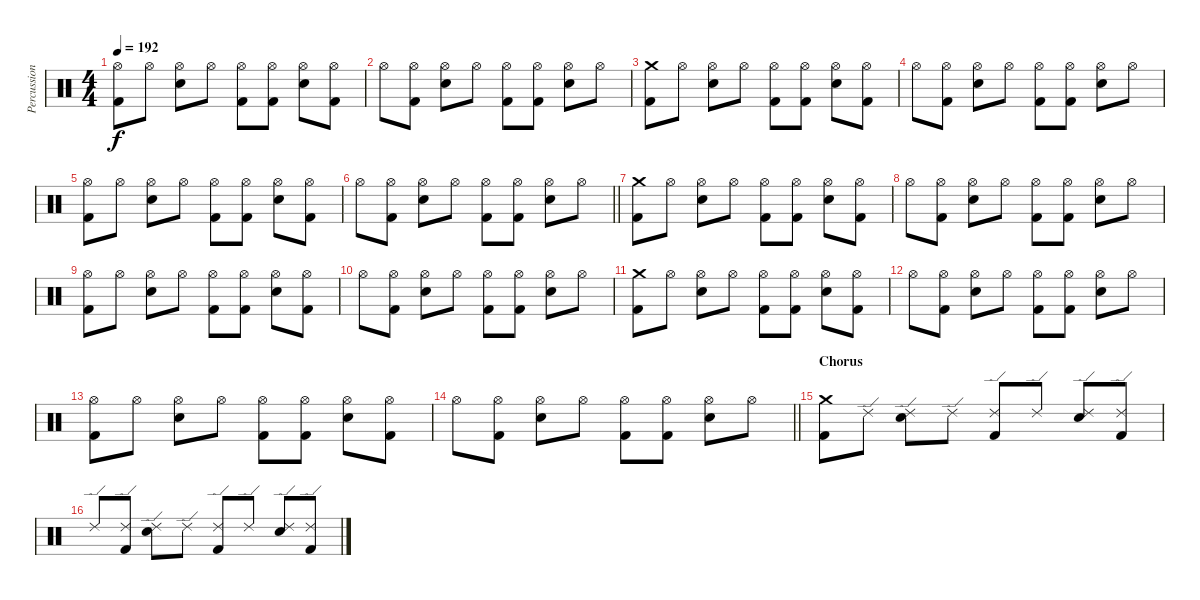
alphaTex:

\track ("Percussion" "Percussion") {instrument percussion}
\staff {score}
\articulation defaults
\ts (4 4)
\tempo 192
\clef neutral
\ks c
("Hi-Hat (open)" "Kick (hit) 2").8{dy f} "Hi-Hat (open)".8 ("Hi-Hat (open)" "Electric Snare (hit)").8 "Hi-Hat (open)".8 ("Hi-Hat (open)" "Kick (hit) 2").8 ("Hi-Hat (open)" "Kick (hit) 2").8 ("Hi-Hat (open)" "Electric Snare (hit)").8 ("Hi-Hat (open)" "Kick (hit) 2").8 |
"Hi-Hat (open)".8 ("Hi-Hat (open)" "Kick (hit) 2").8 ("Hi-Hat (open)" "Electric Snare (hit)").8 "Hi-Hat (open)".8 ("Hi-Hat (open)" "Kick (hit) 2").8 ("Hi-Hat (open)" "Kick (hit) 2").8 ("Hi-Hat (open)" "Electric Snare (hit)").8 "Hi-Hat (open)".8 |
("Crash medium (hit)" "Kick (hit) 2").8 "Hi-Hat (open)".8 ("Hi-Hat (open)" "Electric Snare (hit)").8 "Hi-Hat (open)".8 ("Hi-Hat (open)" "Kick (hit) 2").8 ("Hi-Hat (open)" "Kick (hit) 2").8 ("Hi-Hat (open)" "Electric Snare (hit)").8 ("Hi-Hat (open)" "Kick (hit) 2").8 |
"Hi-Hat (open)".8 ("Hi-Hat (open)" "Kick (hit) 2").8 ("Hi-Hat (open)" "Electric Snare (hit)").8 "Hi-Hat (open)".8 ("Hi-Hat (open)" "Kick (hit) 2").8 ("Hi-Hat (open)" "Kick (hit) 2").8 ("Hi-Hat (open)" "Electric Snare (hit)").8 "Hi-Hat (open)".8 |
("Hi-Hat (open)" "Kick (hit) 2").8 "Hi-Hat (open)".8 ("Hi-Hat (open)" "Electric Snare (hit)").8 "Hi-Hat (open)".8 ("Hi-Hat (open)" "Kick (hit) 2").8 ("Hi-Hat (open)" "Kick (hit) 2").8 ("Hi-Hat (open)" "Electric Snare (hit)").8 ("Hi-Hat (open)" "Kick (hit) 2").8 |
\barLineRight lightlight "Hi-Hat (open)".8
("Hi-Hat (open)" "Kick (hit) 2").8 ("Hi-Hat (open)" "Electric Snare (hit)").8 "Hi-Hat (open)".8 ("Hi-Hat (open)" "Kick (hit) 2").8 ("Hi-Hat (open)" "Kick (hit) 2").8 ("Hi-Hat (open)" "Electric Snare (hit)").8 "Hi-Hat (open)".8 |
("Crash medium (hit)" "Kick (hit) 2").8 "Hi-Hat (open)".8 ("Hi-Hat (open)" "Electric Snare (hit)").8 "Hi-Hat (open)".8 ("Hi-Hat (open)" "Kick (hit) 2").8 ("Hi-Hat (open)" "Kick (hit) 2").8 ("Hi-Hat (open)" "Electric Snare (hit)").8 ("Hi-Hat (open)" "Kick (hit) 2").8 |
"Hi-Hat (open)".8 ("Hi-Hat (open)" "Kick (hit) 2").8 ("Hi-Hat (open)" "Electric Snare (hit)").8 "Hi-Hat (open)".8 ("Hi-Hat (open)" "Kick (hit) 2").8 ("Hi-Hat (open)" "Kick (hit) 2").8 ("Hi-Hat (open)" "Electric Snare (hit)").8 "Hi-Hat (open)".8 |
("Hi-Hat (open)" "Kick (hit) 2").8 "Hi-Hat (open)".8 ("Hi-Hat (open)" "Electric Snare (hit)").8 "Hi-Hat (open)".8 ("Hi-Hat (open)" "Kick (hit) 2").8 ("Hi-Hat (open)" "Kick (hit) 2").8 ("Hi-Hat (open)" "Electric Snare (hit)").8 ("Hi-Hat (open)" "Kick (hit) 2").8 |
"Hi-Hat (open)".8 ("Hi-Hat (open)" "Kick (hit) 2").8 ("Hi-Hat (open)" "Electric Snare (hit)").8 "Hi-Hat (open)".8 ("Hi-Hat (open)" "Kick (hit) 2").8 ("Hi-Hat (open)" "Kick (hit) 2").8 ("Hi-Hat (open)" "Electric Snare (hit)").8 "Hi-Hat (open)".8 |
("Crash medium (hit)" "Kick (hit) 2").8 "Hi-Hat (open)".8 ("Hi-Hat (open)" "Electric Snare (hit)").8 "Hi-Hat (open)".8 ("Hi-Hat (open)" "Kick (hit) 2").8 ("Hi-Hat (open)" "Kick (hit) 2").8 ("Hi-Hat (open)" "Electric Snare (hit)").8 ("Hi-Hat (open)" "Kick (hit) 2").8 |
"Hi-Hat (open)".8 ("Hi-Hat (open)" "Kick (hit) 2").8 ("Hi-Hat (open)" "Electric Snare (hit)").8 "Hi-Hat (open)".8 ("Hi-Hat (open)" "Kick (hit) 2").8 ("Hi-Hat (open)" "Kick (hit) 2").8 ("Hi-Hat (open)" "Electric Snare (hit)").8 "Hi-Hat (open)".8 |
("Hi-Hat (open)" "Kick (hit) 2").8 "Hi-Hat (open)".8 ("Hi-Hat (open)" "Electric Snare (hit)").8 "Hi-Hat (open)".8 ("Hi-Hat (open)" "Kick (hit) 2").8 ("Hi-Hat (open)" "Kick (hit) 2").8 ("Hi-Hat (open)" "Electric Snare (hit)").8 ("Hi-Hat (open)" "Kick (hit) 2").8 |
\barLineRight lightlight "Hi-Hat (open)".8
("Hi-Hat (open)" "Kick (hit) 2").8 ("Hi-Hat (open)" "Electric Snare (hit)").8 "Hi-Hat (open)".8 ("Hi-Hat (open)" "Kick (hit) 2").8 ("Hi-Hat (open)" "Kick (hit) 2").8 ("Hi-Hat (open)" "Electric Snare (hit)").8 "Hi-Hat (open)".8 |
\section ("" "Chorus")
("Crash medium (hit)" "Kick (hit) 2").8 "Ride (edge) 2".8 ("Ride (edge) 2" "Electric Snare (hit)").8 "Ride (edge) 2".8 ("Ride (edge) 2" "Kick (hit) 2").8 "Ride (edge) 2".8 ("Ride (edge) 2" "Electric Snare (hit)").8 ("Ride (edge) 2" "Kick (hit) 2").8 |
"Ride (edge) 2".8 ("Ride (edge) 2" "Kick (hit) 2").8 ("Ride (edge) 2" "Electric Snare (hit)").8 "Ride (edge) 2".8 ("Ride (edge) 2" "Kick (hit) 2").8 "Ride (edge) 2".8 ("Ride (edge) 2" "Electric Snare (hit)").8 ("Ride (edge) 2" "Kick (hit) 2").8
